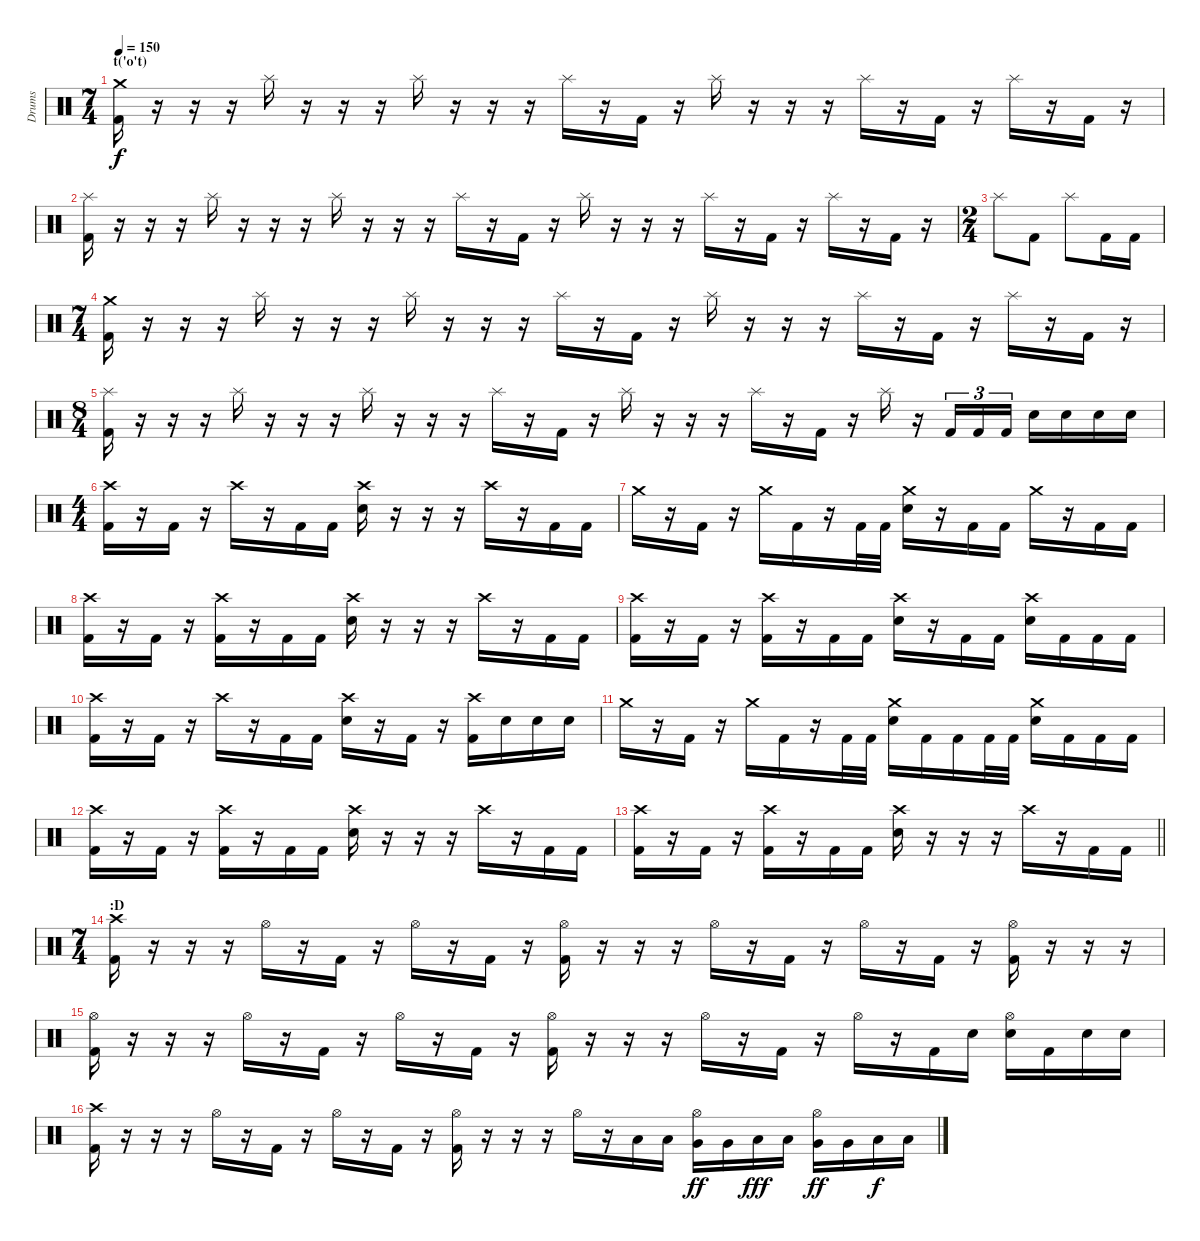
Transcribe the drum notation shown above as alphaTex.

\track ("Drums" "Drums") {instrument percussion}
\staff {score}
\articulation defaults
\ts (7 4)
\section ("" "t('o't)")
\tempo 150
\clef neutral
\ks c
("Crash medium (hit)" "Kick (hit) 2").16{dy f} r.16 r.16 r.16 "Splash (hit)".16 r.16 r.16 r.16 "Splash (hit)".16 r.16 r.16 r.16 "Splash (hit)".16 r.16 "Kick (hit) 2".16 r.16 "Splash (hit)".16 r.16 r.16 r.16 "Splash (hit)".16 r.16 "Kick (hit) 2".16 r.16 "Splash (hit)".16 r.16 "Kick (hit) 2".16 r.16 |
("Splash (hit)" "Kick (hit) 2").16 r.16 r.16 r.16 "Splash (hit)".16 r.16 r.16 r.16 "Splash (hit)".16 r.16 r.16 r.16 "Splash (hit)".16 r.16 "Kick (hit) 2".16 r.16 "Splash (hit)".16 r.16 r.16 r.16 "Splash (hit)".16 r.16 "Kick (hit) 2".16 r.16 "Splash (hit)".16 r.16 "Kick (hit) 2".16 r.16 |
\ts (2 4)
"Splash (hit)".8 "Kick (hit) 2".8 "Splash (hit)".8 "Kick (hit) 2".16 "Kick (hit) 2".16 |
\ts (7 4)
("Crash medium (hit)" "Kick (hit) 2").16 r.16 r.16 r.16 "Splash (hit)".16 r.16 r.16 r.16 "Splash (hit)".16 r.16 r.16 r.16 "Splash (hit)".16 r.16 "Kick (hit) 2".16 r.16 "Splash (hit)".16 r.16 r.16 r.16 "Splash (hit)".16 r.16 "Kick (hit) 2".16 r.16 "Splash (hit)".16 r.16 "Kick (hit) 2".16 r.16 |
\ts (8 4)
("Splash (hit)" "Kick (hit) 2").16 r.16 r.16 r.16 "Splash (hit)".16 r.16 r.16 r.16 "Splash (hit)".16 r.16 r.16 r.16 "Splash (hit)".16 r.16 "Kick (hit) 2".16 r.16 "Splash (hit)".16 r.16 r.16 r.16 "Splash (hit)".16 r.16 "Kick (hit) 2".16 r.16 "Splash (hit)".16 r.16 "Kick (hit) 2".16{tu (3 2)} "Kick (hit) 2".16{tu (3 2)} "Kick (hit) 2".16{tu (3 2)} "Electric Snare (hit)".16 "Electric Snare (hit)".16 "Electric Snare (hit)".16 "Electric Snare (hit)".16 |
\ts (4 4)
("Crash high (hit)" "Kick (hit) 2").16 r.16 "Kick (hit) 2".16 r.16 "Crash high (hit)".16 r.16 "Kick (hit) 2".16 "Kick (hit) 2".16 ("Crash high (hit)" "Electric Snare (hit)").16 r.16 r.16 r.16 "Crash high (hit)".16 r.16 "Kick (hit) 2".16 "Kick (hit) 2".16 |
"Crash medium (hit)".16 r.16 "Kick (hit) 2".16 r.16 "Crash medium (hit)".16 "Kick (hit) 2".16 r.16 "Kick (hit) 2".32 "Kick (hit) 2".32 ("Crash medium (hit)" "Electric Snare (hit)").16 r.16 "Kick (hit) 2".16 "Kick (hit) 2".16 "Crash medium (hit)".16 r.16 "Kick (hit) 2".16 "Kick (hit) 2".16 |
("Crash high (hit)" "Kick (hit) 2").16 r.16 "Kick (hit) 2".16 r.16 ("Crash high (hit)" "Kick (hit) 2").16 r.16 "Kick (hit) 2".16 "Kick (hit) 2".16 ("Crash high (hit)" "Electric Snare (hit)").16 r.16 r.16 r.16 "Crash high (hit)".16 r.16 "Kick (hit) 2".16 "Kick (hit) 2".16 |
("Crash high (hit)" "Kick (hit) 2").16 r.16 "Kick (hit) 2".16 r.16 ("Crash high (hit)" "Kick (hit) 2").16 r.16 "Kick (hit) 2".16 "Kick (hit) 2".16 ("Crash high (hit)" "Electric Snare (hit)").16 r.16 "Kick (hit) 2".16 "Kick (hit) 2".16 ("Crash high (hit)" "Electric Snare (hit)").16 "Kick (hit) 2".16 "Kick (hit) 2".16 "Kick (hit) 2".16 |
("Crash high (hit)" "Kick (hit) 2").16 r.16 "Kick (hit) 2".16 r.16 "Crash high (hit)".16 r.16 "Kick (hit) 2".16 "Kick (hit) 2".16 ("Crash high (hit)" "Electric Snare (hit)").16 r.16 "Kick (hit) 2".16 r.16 ("Crash high (hit)" "Kick (hit) 2").16 "Electric Snare (hit)".16 "Electric Snare (hit)".16 "Electric Snare (hit)".16 |
"Crash medium (hit)".16 r.16 "Kick (hit) 2".16 r.16 "Crash medium (hit)".16 "Kick (hit) 2".16 r.16 "Kick (hit) 2".32 "Kick (hit) 2".32 ("Crash medium (hit)" "Electric Snare (hit)").16 "Kick (hit) 2".16 "Kick (hit) 2".16 "Kick (hit) 2".32 "Kick (hit) 2".32 ("Crash medium (hit)" "Electric Snare (hit)").16 "Kick (hit) 2".16 "Kick (hit) 2".16 "Kick (hit) 2".16 |
("Crash high (hit)" "Kick (hit) 2").16 r.16 "Kick (hit) 2".16 r.16 ("Crash high (hit)" "Kick (hit) 2").16 r.16 "Kick (hit) 2".16 "Kick (hit) 2".16 ("Crash high (hit)" "Electric Snare (hit)").16 r.16 r.16 r.16 "Crash high (hit)".16 r.16 "Kick (hit) 2".16 "Kick (hit) 2".16 |
\barLineRight lightlight
("Crash high (hit)" "Kick (hit) 2").16 r.16 "Kick (hit) 2".16 r.16 ("Crash high (hit)" "Kick (hit) 2").16 r.16 "Kick (hit) 2".16 "Kick (hit) 2".16 ("Crash high (hit)" "Electric Snare (hit)").16 r.16 r.16 r.16 "Crash high (hit)".16 r.16 "Kick (hit) 2".16 "Kick (hit) 2".16 |
\ts (7 4)
\section ("" ":D")
("Crash high (hit)" "Kick (hit) 2").16 r.16 r.16 r.16 "Hi-Hat (open)".16 r.16 "Kick (hit) 2".16 r.16 "Hi-Hat (open)".16 r.16 "Kick (hit) 2".16 r.16 ("Hi-Hat (open)" "Kick (hit) 2").16 r.16 r.16 r.16 "Hi-Hat (open)".16 r.16 "Kick (hit) 2".16 r.16 "Hi-Hat (open)".16 r.16 "Kick (hit) 2".16 r.16 ("Hi-Hat (open)" "Kick (hit) 2").16 r.16 r.16 r.16 |
("Hi-Hat (open)" "Kick (hit) 2").16 r.16 r.16 r.16 "Hi-Hat (open)".16 r.16 "Kick (hit) 2".16 r.16 "Hi-Hat (open)".16 r.16 "Kick (hit) 2".16 r.16 ("Hi-Hat (open)" "Kick (hit) 2").16 r.16 r.16 r.16 "Hi-Hat (open)".16 r.16 "Kick (hit) 2".16 r.16 "Hi-Hat (open)".16 r.16 "Kick (hit) 2".16 "Electric Snare (hit)".16 ("Hi-Hat (open)" "Electric Snare (hit)").16 "Kick (hit) 2".16 "Electric Snare (hit)".16 "Electric Snare (hit)".16 |
("Crash high (hit)" "Kick (hit) 2").16 r.16 r.16 r.16 "Hi-Hat (open)".16 r.16 "Kick (hit) 2".16 r.16 "Hi-Hat (open)".16 r.16 "Kick (hit) 2".16 r.16 ("Hi-Hat (open)" "Kick (hit) 2").16 r.16 r.16 r.16 "Hi-Hat (open)".16 r.16 "Low Floor Tom (hit)".16 "Low Floor Tom (hit)".16 ("Hi-Hat (open)" "Very Low Tom (hit)").16{dy ff} "Very Low Tom (hit)".16 "Low Tom (hit)".16{dy fff} "Low Tom (hit)".16 ("Hi-Hat (open)" "Very Low Tom (hit)").16{dy ff} "Very Low Tom (hit)".16 "Low Floor Tom (hit)".16{dy f} "Low Floor Tom (hit)".16
